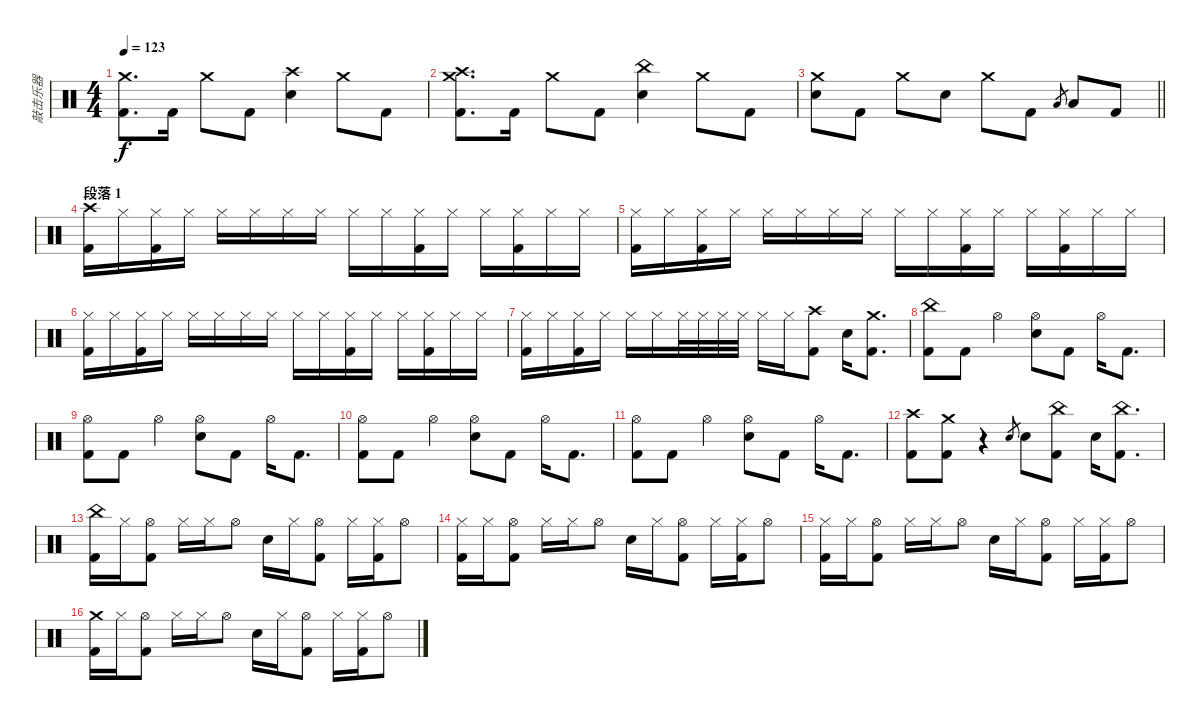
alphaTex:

\track ("敲击乐器" "敲击乐器") {instrument percussion}
\staff {score}
\articulation defaults
\ts (4 4)
\tempo 123
\clef neutral
\ks c
("Crash medium (hit)" "Kick (hit) 2").8{d dy f} "Kick (hit) 2".16 "Crash medium (hit)".8 "Kick (hit) 2".8 ("Crash high (hit)" "Electric Snare (hit)").4 "Crash medium (hit)".8 "Kick (hit) 2".8 |
("Crash high (hit)" "Crash medium (hit)" "Kick (hit) 2").8{d} "Kick (hit) 2".16 "Crash medium (hit)".8 "Kick (hit) 2".8 ("China (hit)" "Electric Snare (hit)").4 "Crash medium (hit)".8 "Kick (hit) 2".8 |
\barLineRight lightlight
("Crash medium (hit)" "Electric Snare (hit)").8 "Kick (hit) 2".8 "Crash medium (hit)".8 "Electric Snare (hit)".8 "Crash medium (hit)".8 "Kick (hit) 2".8 "Low Tom (hit)".8{gr} "Low Tom (hit)".8 "Kick (hit) 2".8 |
\section ("" "段落 1")
("Crash high (hit)" "Kick (hit) 2").16 "Hi-Hat (closed)".16 ("Hi-Hat (closed)" "Kick (hit) 2").16 "Hi-Hat (closed)".16 "Hi-Hat (closed)".16 "Hi-Hat (closed)".16 "Hi-Hat (closed)".16 "Hi-Hat (closed)".16 "Hi-Hat (closed)".16 "Hi-Hat (closed)".16 ("Hi-Hat (closed)" "Kick (hit) 2").16 "Hi-Hat (closed)".16 "Hi-Hat (closed)".16 ("Hi-Hat (closed)" "Kick (hit) 2").16 "Hi-Hat (closed)".16 "Hi-Hat (closed)".16 |
("Hi-Hat (closed)" "Kick (hit) 2").16 "Hi-Hat (closed)".16 ("Hi-Hat (closed)" "Kick (hit) 2").16 "Hi-Hat (closed)".16 "Hi-Hat (closed)".16 "Hi-Hat (closed)".16 "Hi-Hat (closed)".16 "Hi-Hat (closed)".16 "Hi-Hat (closed)".16 "Hi-Hat (closed)".16 ("Hi-Hat (closed)" "Kick (hit) 2").16 "Hi-Hat (closed)".16 "Hi-Hat (closed)".16 ("Hi-Hat (closed)" "Kick (hit) 2").16 "Hi-Hat (closed)".16 "Hi-Hat (closed)".16 |
("Hi-Hat (closed)" "Kick (hit) 2").16 "Hi-Hat (closed)".16 ("Hi-Hat (closed)" "Kick (hit) 2").16 "Hi-Hat (closed)".16 "Hi-Hat (closed)".16 "Hi-Hat (closed)".16 "Hi-Hat (closed)".16 "Hi-Hat (closed)".16 "Hi-Hat (closed)".16 "Hi-Hat (closed)".16 ("Hi-Hat (closed)" "Kick (hit) 2").16 "Hi-Hat (closed)".16 "Hi-Hat (closed)".16 ("Hi-Hat (closed)" "Kick (hit) 2").16 "Hi-Hat (closed)".16 "Hi-Hat (closed)".16 |
("Hi-Hat (closed)" "Kick (hit) 2").16 "Hi-Hat (closed)".16 ("Hi-Hat (closed)" "Kick (hit) 2").16 "Hi-Hat (closed)".16 "Hi-Hat (closed)".16 "Hi-Hat (closed)".16 "Hi-Hat (closed)".32 "Hi-Hat (closed)".32 "Hi-Hat (closed)".32 "Hi-Hat (closed)".32 "Hi-Hat (closed)".16 "Hi-Hat (closed)".16 ("Crash high (hit)" "Kick (hit) 2").8 "Electric Snare (hit)".16 ("Crash medium (hit)" "Kick (hit) 2").8{d} |
("China (hit)" "Kick (hit) 2").8 "Kick (hit) 2".8 "Hi-Hat (open)".4 ("Hi-Hat (open)" "Electric Snare (hit)").8 "Kick (hit) 2".8 "Hi-Hat (open)".16 "Kick (hit) 2".8{d} |
("Hi-Hat (open)" "Kick (hit) 2").8 "Kick (hit) 2".8 "Hi-Hat (open)".4 ("Hi-Hat (open)" "Electric Snare (hit)").8 "Kick (hit) 2".8 "Hi-Hat (open)".16 "Kick (hit) 2".8{d} |
("Hi-Hat (open)" "Kick (hit) 2").8 "Kick (hit) 2".8 "Hi-Hat (open)".4 ("Hi-Hat (open)" "Electric Snare (hit)").8 "Kick (hit) 2".8 "Hi-Hat (open)".16 "Kick (hit) 2".8{d} |
("Hi-Hat (open)" "Kick (hit) 2").8 "Kick (hit) 2".8 "Hi-Hat (open)".4 ("Hi-Hat (open)" "Electric Snare (hit)").8 "Kick (hit) 2".8 "Hi-Hat (open)".16 "Kick (hit) 2".8{d} |
("Crash high (hit)" "Kick (hit) 2").8 ("Crash medium (hit)" "Kick (hit) 2").8 r.4 "Electric Snare (hit)".8{gr} "Electric Snare (hit)".8 ("China (hit)" "Kick (hit) 2").8 "Electric Snare (hit)".16 ("China (hit)" "Kick (hit) 2").8{d} |
("China (hit)" "Kick (hit) 2").16 "Hi-Hat (closed)".16 ("Hi-Hat (open)" "Kick (hit) 2").8 "Hi-Hat (closed)".16 "Hi-Hat (closed)".16 "Hi-Hat (open)".8 "Electric Snare (hit)".16 "Hi-Hat (closed)".16 ("Hi-Hat (open)" "Kick (hit) 2").8 "Hi-Hat (closed)".16 ("Hi-Hat (closed)" "Kick (hit) 2").16 "Hi-Hat (open)".8 |
("Hi-Hat (closed)" "Kick (hit) 2").16 "Hi-Hat (closed)".16 ("Hi-Hat (open)" "Kick (hit) 2").8 "Hi-Hat (closed)".16 "Hi-Hat (closed)".16 "Hi-Hat (open)".8 "Electric Snare (hit)".16 "Hi-Hat (closed)".16 ("Hi-Hat (open)" "Kick (hit) 2").8 "Hi-Hat (closed)".16 ("Hi-Hat (closed)" "Kick (hit) 2").16 "Hi-Hat (open)".8 |
("Hi-Hat (closed)" "Kick (hit) 2").16 "Hi-Hat (closed)".16 ("Hi-Hat (open)" "Kick (hit) 2").8 "Hi-Hat (closed)".16 "Hi-Hat (closed)".16 "Hi-Hat (open)".8 "Electric Snare (hit)".16 "Hi-Hat (closed)".16 ("Hi-Hat (open)" "Kick (hit) 2").8 "Hi-Hat (closed)".16 ("Hi-Hat (closed)" "Kick (hit) 2").16 "Hi-Hat (open)".8 |
("Crash medium (hit)" "Kick (hit) 2").16 "Hi-Hat (closed)".16 ("Hi-Hat (open)" "Kick (hit) 2").8 "Hi-Hat (closed)".16 "Hi-Hat (closed)".16 "Hi-Hat (open)".8 "Electric Snare (hit)".16 "Hi-Hat (closed)".16 ("Hi-Hat (open)" "Kick (hit) 2").8 "Hi-Hat (closed)".16 ("Hi-Hat (closed)" "Kick (hit) 2").16 "Hi-Hat (open)".8
